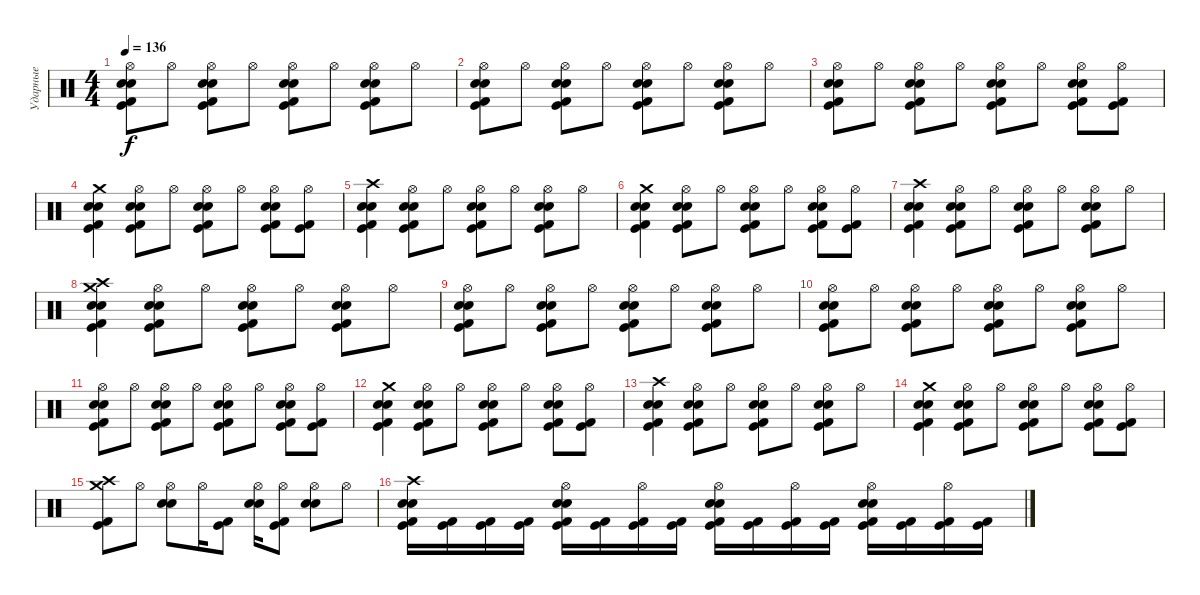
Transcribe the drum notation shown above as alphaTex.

\track ("Ударные" "Ударные") {instrument percussion}
\staff {score}
\articulation defaults
\ts (4 4)
\tempo 136
\clef neutral
\ks c
("Hi-Hat (open)" "Snare (hit) 2" "Kick (hit) 2" "Kick (hit)" "Electric Snare (hit)").8{dy f} "Hi-Hat (open)".8 ("Hi-Hat (open)" "Snare (hit) 2" "Kick (hit) 2" "Kick (hit)" "Electric Snare (hit)").8 "Hi-Hat (open)".8 ("Hi-Hat (open)" "Snare (hit) 2" "Kick (hit) 2" "Kick (hit)" "Electric Snare (hit)").8 "Hi-Hat (open)".8 ("Hi-Hat (open)" "Snare (hit) 2" "Kick (hit) 2" "Kick (hit)" "Electric Snare (hit)").8 "Hi-Hat (open)".8 |
("Hi-Hat (open)" "Snare (hit) 2" "Kick (hit) 2" "Kick (hit)" "Electric Snare (hit)").8 "Hi-Hat (open)".8 ("Hi-Hat (open)" "Snare (hit) 2" "Kick (hit) 2" "Kick (hit)" "Electric Snare (hit)").8 "Hi-Hat (open)".8 ("Hi-Hat (open)" "Snare (hit) 2" "Kick (hit) 2" "Kick (hit)" "Electric Snare (hit)").8 "Hi-Hat (open)".8 ("Hi-Hat (open)" "Snare (hit) 2" "Kick (hit) 2" "Kick (hit)" "Electric Snare (hit)").8 "Hi-Hat (open)".8 |
("Hi-Hat (open)" "Snare (hit) 2" "Kick (hit) 2" "Kick (hit)" "Electric Snare (hit)").8 "Hi-Hat (open)".8 ("Hi-Hat (open)" "Snare (hit) 2" "Kick (hit) 2" "Kick (hit)" "Electric Snare (hit)").8 "Hi-Hat (open)".8 ("Hi-Hat (open)" "Snare (hit) 2" "Kick (hit) 2" "Kick (hit)" "Electric Snare (hit)").8 "Hi-Hat (open)".8 ("Hi-Hat (open)" "Snare (hit) 2" "Kick (hit) 2" "Kick (hit)" "Electric Snare (hit)").8 ("Hi-Hat (open)" "Kick (hit)" "Kick (hit) 2").8 |
("Crash medium (hit)" "Snare (hit) 2" "Kick (hit) 2" "Kick (hit)" "Electric Snare (hit)").4 ("Hi-Hat (open)" "Snare (hit) 2" "Kick (hit) 2" "Kick (hit)" "Electric Snare (hit)").8 "Hi-Hat (open)".8 ("Hi-Hat (open)" "Snare (hit) 2" "Kick (hit) 2" "Kick (hit)" "Electric Snare (hit)").8 "Hi-Hat (open)".8 ("Hi-Hat (open)" "Snare (hit) 2" "Kick (hit) 2" "Kick (hit)" "Electric Snare (hit)").8 ("Hi-Hat (open)" "Kick (hit)" "Kick (hit) 2").8 |
("Crash high (hit)" "Snare (hit) 2" "Kick (hit) 2" "Kick (hit)" "Electric Snare (hit)").4 ("Hi-Hat (open)" "Snare (hit) 2" "Kick (hit) 2" "Kick (hit)" "Electric Snare (hit)").8 "Hi-Hat (open)".8 ("Hi-Hat (open)" "Snare (hit) 2" "Kick (hit) 2" "Kick (hit)" "Electric Snare (hit)").8 "Hi-Hat (open)".8 ("Hi-Hat (open)" "Snare (hit) 2" "Kick (hit) 2" "Kick (hit)" "Electric Snare (hit)").8 "Hi-Hat (open)".8 |
("Crash medium (hit)" "Snare (hit) 2" "Kick (hit) 2" "Kick (hit)" "Electric Snare (hit)").4 ("Hi-Hat (open)" "Snare (hit) 2" "Kick (hit) 2" "Kick (hit)" "Electric Snare (hit)").8 "Hi-Hat (open)".8 ("Hi-Hat (open)" "Snare (hit) 2" "Kick (hit) 2" "Kick (hit)" "Electric Snare (hit)").8 "Hi-Hat (open)".8 ("Hi-Hat (open)" "Snare (hit) 2" "Kick (hit) 2" "Kick (hit)" "Electric Snare (hit)").8 ("Hi-Hat (open)" "Kick (hit)" "Kick (hit) 2").8 |
("Crash high (hit)" "Snare (hit) 2" "Kick (hit) 2" "Kick (hit)" "Electric Snare (hit)").4 ("Hi-Hat (open)" "Snare (hit) 2" "Kick (hit) 2" "Kick (hit)" "Electric Snare (hit)").8 "Hi-Hat (open)".8 ("Hi-Hat (open)" "Snare (hit) 2" "Kick (hit) 2" "Kick (hit)" "Electric Snare (hit)").8 "Hi-Hat (open)".8 ("Hi-Hat (open)" "Snare (hit) 2" "Kick (hit) 2" "Kick (hit)" "Electric Snare (hit)").8 "Hi-Hat (open)".8 |
("Crash high (hit)" "Snare (hit) 2" "Kick (hit) 2" "Kick (hit)" "Electric Snare (hit)" "Crash medium (hit)").4 ("Hi-Hat (open)" "Snare (hit) 2" "Kick (hit) 2" "Kick (hit)" "Electric Snare (hit)").8 "Hi-Hat (open)".8 ("Hi-Hat (open)" "Snare (hit) 2" "Kick (hit) 2" "Kick (hit)" "Electric Snare (hit)").8 "Hi-Hat (open)".8 ("Hi-Hat (open)" "Snare (hit) 2" "Kick (hit) 2" "Kick (hit)" "Electric Snare (hit)").8 "Hi-Hat (open)".8 |
("Hi-Hat (open)" "Snare (hit) 2" "Kick (hit) 2" "Kick (hit)" "Electric Snare (hit)").8 "Hi-Hat (open)".8 ("Hi-Hat (open)" "Snare (hit) 2" "Kick (hit) 2" "Kick (hit)" "Electric Snare (hit)").8 "Hi-Hat (open)".8 ("Hi-Hat (open)" "Snare (hit) 2" "Kick (hit) 2" "Kick (hit)" "Electric Snare (hit)").8 "Hi-Hat (open)".8 ("Hi-Hat (open)" "Snare (hit) 2" "Kick (hit) 2" "Kick (hit)" "Electric Snare (hit)").8 "Hi-Hat (open)".8 |
("Hi-Hat (open)" "Snare (hit) 2" "Kick (hit) 2" "Kick (hit)" "Electric Snare (hit)").8 "Hi-Hat (open)".8 ("Hi-Hat (open)" "Snare (hit) 2" "Kick (hit) 2" "Kick (hit)" "Electric Snare (hit)").8 "Hi-Hat (open)".8 ("Hi-Hat (open)" "Snare (hit) 2" "Kick (hit) 2" "Kick (hit)" "Electric Snare (hit)").8 "Hi-Hat (open)".8 ("Hi-Hat (open)" "Snare (hit) 2" "Kick (hit) 2" "Kick (hit)" "Electric Snare (hit)").8 "Hi-Hat (open)".8 |
("Hi-Hat (open)" "Snare (hit) 2" "Kick (hit) 2" "Kick (hit)" "Electric Snare (hit)").8 "Hi-Hat (open)".8 ("Hi-Hat (open)" "Snare (hit) 2" "Kick (hit) 2" "Kick (hit)" "Electric Snare (hit)").8 "Hi-Hat (open)".8 ("Hi-Hat (open)" "Snare (hit) 2" "Kick (hit) 2" "Kick (hit)" "Electric Snare (hit)").8 "Hi-Hat (open)".8 ("Hi-Hat (open)" "Snare (hit) 2" "Kick (hit) 2" "Kick (hit)" "Electric Snare (hit)").8 ("Hi-Hat (open)" "Kick (hit)" "Kick (hit) 2").8 |
("Crash medium (hit)" "Snare (hit) 2" "Kick (hit) 2" "Kick (hit)" "Electric Snare (hit)").4 ("Hi-Hat (open)" "Snare (hit) 2" "Kick (hit) 2" "Kick (hit)" "Electric Snare (hit)").8 "Hi-Hat (open)".8 ("Hi-Hat (open)" "Snare (hit) 2" "Kick (hit) 2" "Kick (hit)" "Electric Snare (hit)").8 "Hi-Hat (open)".8 ("Hi-Hat (open)" "Snare (hit) 2" "Kick (hit) 2" "Kick (hit)" "Electric Snare (hit)").8 ("Hi-Hat (open)" "Kick (hit)" "Kick (hit) 2").8 |
("Crash high (hit)" "Snare (hit) 2" "Kick (hit) 2" "Kick (hit)" "Electric Snare (hit)").4 ("Hi-Hat (open)" "Snare (hit) 2" "Kick (hit) 2" "Kick (hit)" "Electric Snare (hit)").8 "Hi-Hat (open)".8 ("Hi-Hat (open)" "Snare (hit) 2" "Kick (hit) 2" "Kick (hit)" "Electric Snare (hit)").8 "Hi-Hat (open)".8 ("Hi-Hat (open)" "Snare (hit) 2" "Kick (hit) 2" "Kick (hit)" "Electric Snare (hit)").8 "Hi-Hat (open)".8 |
("Crash medium (hit)" "Snare (hit) 2" "Kick (hit) 2" "Kick (hit)" "Electric Snare (hit)").4 ("Hi-Hat (open)" "Snare (hit) 2" "Kick (hit) 2" "Kick (hit)" "Electric Snare (hit)").8 "Hi-Hat (open)".8 ("Hi-Hat (open)" "Snare (hit) 2" "Kick (hit) 2" "Kick (hit)" "Electric Snare (hit)").8 "Hi-Hat (open)".8 ("Hi-Hat (open)" "Snare (hit) 2" "Kick (hit) 2" "Kick (hit)" "Electric Snare (hit)").8 ("Hi-Hat (open)" "Kick (hit)" "Kick (hit) 2").8 |
("Crash high (hit)" "Kick (hit)" "Kick (hit) 2" "Crash medium (hit)").8 "Hi-Hat (open)".8 ("Hi-Hat (open)" "Snare (hit) 2" "Electric Snare (hit)").8 "Hi-Hat (open)".16 ("Kick (hit)" "Kick (hit) 2").8 ("Hi-Hat (open)" "Snare (hit) 2" "Electric Snare (hit)").16 ("Hi-Hat (open)" "Kick (hit)" "Kick (hit) 2").8 ("Hi-Hat (open)" "Snare (hit) 2" "Electric Snare (hit)").8 "Hi-Hat (open)".8 |
("Crash high (hit)" "Kick (hit)" "Kick (hit) 2" "Snare (hit) 2" "Electric Snare (hit)").16 ("Kick (hit)" "Kick (hit) 2").16 ("Kick (hit)" "Kick (hit) 2").16 ("Kick (hit)" "Kick (hit) 2").16 ("Hi-Hat (open)" "Kick (hit)" "Kick (hit) 2" "Snare (hit) 2" "Electric Snare (hit)").16 ("Kick (hit)" "Kick (hit) 2").16 ("Hi-Hat (open)" "Kick (hit)" "Kick (hit) 2").16 ("Kick (hit)" "Kick (hit) 2").16 ("Hi-Hat (open)" "Kick (hit)" "Kick (hit) 2" "Snare (hit) 2" "Electric Snare (hit)").16 ("Kick (hit)" "Kick (hit) 2").16 ("Hi-Hat (open)" "Kick (hit)" "Kick (hit) 2").16 ("Kick (hit)" "Kick (hit) 2").16 ("Hi-Hat (open)" "Kick (hit)" "Kick (hit) 2" "Snare (hit) 2" "Electric Snare (hit)").16 ("Kick (hit)" "Kick (hit) 2").16 ("Hi-Hat (open)" "Kick (hit)" "Kick (hit) 2").16 ("Kick (hit)" "Kick (hit) 2").16
